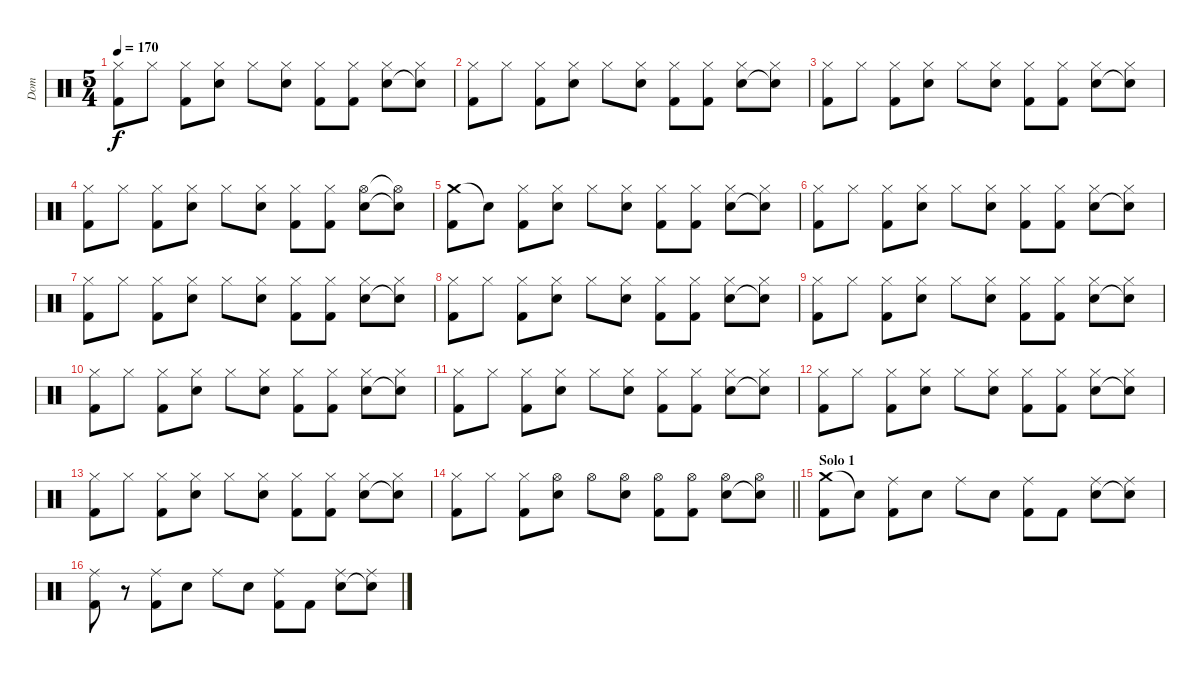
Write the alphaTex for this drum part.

\track ("Dom" "Dom") {instrument percussion}
\staff {score}
\articulation defaults
\ts (5 4)
\tempo 170
\clef neutral
\ks c
("Hi-Hat (closed)" "Kick (hit) 2").8{dy f} "Hi-Hat (closed)".8 ("Hi-Hat (closed)" "Kick (hit) 2").8 ("Hi-Hat (closed)" "Electric Snare (hit)").8 "Hi-Hat (closed)".8 ("Hi-Hat (closed)" "Electric Snare (hit)").8 ("Hi-Hat (closed)" "Kick (hit) 2").8 ("Hi-Hat (closed)" "Kick (hit) 2").8 ("Hi-Hat (closed)" "Electric Snare (hit)").8 ("Hi-Hat (closed)" "Snare (hit)"{t}).8 |
("Hi-Hat (closed)" "Kick (hit) 2").8 "Hi-Hat (closed)".8 ("Hi-Hat (closed)" "Kick (hit) 2").8 ("Hi-Hat (closed)" "Electric Snare (hit)").8 "Hi-Hat (closed)".8 ("Hi-Hat (closed)" "Electric Snare (hit)").8 ("Hi-Hat (closed)" "Kick (hit) 2").8 ("Hi-Hat (closed)" "Kick (hit) 2").8 ("Hi-Hat (closed)" "Electric Snare (hit)").8 ("Hi-Hat (closed)" "Snare (hit)"{t}).8 |
("Hi-Hat (closed)" "Kick (hit) 2").8 "Hi-Hat (closed)".8 ("Hi-Hat (closed)" "Kick (hit) 2").8 ("Hi-Hat (closed)" "Electric Snare (hit)").8 "Hi-Hat (closed)".8 ("Hi-Hat (closed)" "Electric Snare (hit)").8 ("Hi-Hat (closed)" "Kick (hit) 2").8 ("Hi-Hat (closed)" "Kick (hit) 2").8 ("Hi-Hat (closed)" "Electric Snare (hit)").8 ("Hi-Hat (closed)" "Snare (hit)"{t}).8 |
("Hi-Hat (closed)" "Kick (hit) 2").8 "Hi-Hat (closed)".8 ("Hi-Hat (closed)" "Kick (hit) 2").8 ("Hi-Hat (closed)" "Electric Snare (hit)").8 "Hi-Hat (closed)".8 ("Hi-Hat (closed)" "Electric Snare (hit)").8 ("Hi-Hat (closed)" "Kick (hit) 2").8 ("Hi-Hat (closed)" "Kick (hit) 2").8 ("Hi-Hat (open)" "Electric Snare (hit)").8 ("Hi-Hat (open)"{t} "Snare (hit)"{t}).8 |
("Crash medium (hit)" "Kick (hit) 2").8 "Snare (hit)"{t}.8 ("Hi-Hat (closed)" "Kick (hit) 2").8 ("Hi-Hat (closed)" "Electric Snare (hit)").8 "Hi-Hat (closed)".8 ("Hi-Hat (closed)" "Electric Snare (hit)").8 ("Hi-Hat (closed)" "Kick (hit) 2").8 ("Hi-Hat (closed)" "Kick (hit) 2").8 ("Hi-Hat (closed)" "Electric Snare (hit)").8 ("Hi-Hat (closed)" "Snare (hit)"{t}).8 |
("Hi-Hat (closed)" "Kick (hit) 2").8 "Hi-Hat (closed)".8 ("Hi-Hat (closed)" "Kick (hit) 2").8 ("Hi-Hat (closed)" "Electric Snare (hit)").8 "Hi-Hat (closed)".8 ("Hi-Hat (closed)" "Electric Snare (hit)").8 ("Hi-Hat (closed)" "Kick (hit) 2").8 ("Hi-Hat (closed)" "Kick (hit) 2").8 ("Hi-Hat (closed)" "Electric Snare (hit)").8 ("Hi-Hat (closed)" "Snare (hit)"{t}).8 |
("Hi-Hat (closed)" "Kick (hit) 2").8 "Hi-Hat (closed)".8 ("Hi-Hat (closed)" "Kick (hit) 2").8 ("Hi-Hat (closed)" "Electric Snare (hit)").8 "Hi-Hat (closed)".8 ("Hi-Hat (closed)" "Electric Snare (hit)").8 ("Hi-Hat (closed)" "Kick (hit) 2").8 ("Hi-Hat (closed)" "Kick (hit) 2").8 ("Hi-Hat (closed)" "Electric Snare (hit)").8 ("Hi-Hat (closed)" "Snare (hit)"{t}).8 |
("Hi-Hat (closed)" "Kick (hit) 2").8 "Hi-Hat (closed)".8 ("Hi-Hat (closed)" "Kick (hit) 2").8 ("Hi-Hat (closed)" "Electric Snare (hit)").8 "Hi-Hat (closed)".8 ("Hi-Hat (closed)" "Electric Snare (hit)").8 ("Hi-Hat (closed)" "Kick (hit) 2").8 ("Hi-Hat (closed)" "Kick (hit) 2").8 ("Hi-Hat (closed)" "Electric Snare (hit)").8 ("Hi-Hat (closed)" "Snare (hit)"{t}).8 |
("Hi-Hat (closed)" "Kick (hit) 2").8 "Hi-Hat (closed)".8 ("Hi-Hat (closed)" "Kick (hit) 2").8 ("Hi-Hat (closed)" "Electric Snare (hit)").8 "Hi-Hat (closed)".8 ("Hi-Hat (closed)" "Electric Snare (hit)").8 ("Hi-Hat (closed)" "Kick (hit) 2").8 ("Hi-Hat (closed)" "Kick (hit) 2").8 ("Hi-Hat (closed)" "Electric Snare (hit)").8 ("Hi-Hat (closed)" "Snare (hit)"{t}).8 |
("Hi-Hat (closed)" "Kick (hit) 2").8 "Hi-Hat (closed)".8 ("Hi-Hat (closed)" "Kick (hit) 2").8 ("Hi-Hat (closed)" "Electric Snare (hit)").8 "Hi-Hat (closed)".8 ("Hi-Hat (closed)" "Electric Snare (hit)").8 ("Hi-Hat (closed)" "Kick (hit) 2").8 ("Hi-Hat (closed)" "Kick (hit) 2").8 ("Hi-Hat (closed)" "Electric Snare (hit)").8 ("Hi-Hat (closed)" "Snare (hit)"{t}).8 |
("Hi-Hat (closed)" "Kick (hit) 2").8 "Hi-Hat (closed)".8 ("Hi-Hat (closed)" "Kick (hit) 2").8 ("Hi-Hat (closed)" "Electric Snare (hit)").8 "Hi-Hat (closed)".8 ("Hi-Hat (closed)" "Electric Snare (hit)").8 ("Hi-Hat (closed)" "Kick (hit) 2").8 ("Hi-Hat (closed)" "Kick (hit) 2").8 ("Hi-Hat (closed)" "Electric Snare (hit)").8 ("Hi-Hat (closed)" "Snare (hit)"{t}).8 |
("Hi-Hat (closed)" "Kick (hit) 2").8 "Hi-Hat (closed)".8 ("Hi-Hat (closed)" "Kick (hit) 2").8 ("Hi-Hat (closed)" "Electric Snare (hit)").8 "Hi-Hat (closed)".8 ("Hi-Hat (closed)" "Electric Snare (hit)").8 ("Hi-Hat (closed)" "Kick (hit) 2").8 ("Hi-Hat (closed)" "Kick (hit) 2").8 ("Hi-Hat (closed)" "Electric Snare (hit)").8 ("Hi-Hat (closed)" "Snare (hit)"{t}).8 |
("Hi-Hat (closed)" "Kick (hit) 2").8 "Hi-Hat (closed)".8 ("Hi-Hat (closed)" "Kick (hit) 2").8 ("Hi-Hat (closed)" "Electric Snare (hit)").8 "Hi-Hat (closed)".8 ("Hi-Hat (closed)" "Electric Snare (hit)").8 ("Hi-Hat (closed)" "Kick (hit) 2").8 ("Hi-Hat (closed)" "Kick (hit) 2").8 ("Hi-Hat (closed)" "Electric Snare (hit)").8 ("Hi-Hat (closed)" "Snare (hit)"{t}).8 |
\barLineRight lightlight
("Hi-Hat (closed)" "Kick (hit) 2").8 "Hi-Hat (closed)".8 ("Hi-Hat (closed)" "Kick (hit) 2").8 ("Hi-Hat (open)" "Electric Snare (hit)").8 "Hi-Hat (open)".8 ("Hi-Hat (open)" "Electric Snare (hit)").8 ("Hi-Hat (open)" "Kick (hit) 2").8 ("Hi-Hat (open)" "Kick (hit) 2").8 ("Hi-Hat (open)" "Electric Snare (hit)").8 ("Hi-Hat (open)" "Snare (hit)"{t}).8 |
\section ("" "Solo 1")
("Crash medium (hit)" "Kick (hit) 2").8 "Snare (hit)"{t}.8 ("Ride (middle)" "Kick (hit) 2").8 "Electric Snare (hit)".8 "Ride (middle)".8 "Electric Snare (hit)".8 ("Ride (middle)" "Kick (hit) 2").8 "Kick (hit) 2".8 ("Ride (middle)" "Electric Snare (hit)").8 ("Ride (middle)" "Snare (hit)"{t}).8 |
("Ride (middle)" "Kick (hit) 2").8 r.8 ("Ride (middle)" "Kick (hit) 2").8 "Electric Snare (hit)".8 "Ride (middle)".8 "Electric Snare (hit)".8 ("Ride (middle)" "Kick (hit) 2").8 "Kick (hit) 2".8 ("Ride (middle)" "Electric Snare (hit)").8 ("Ride (middle)" "Snare (hit)"{t}).8
